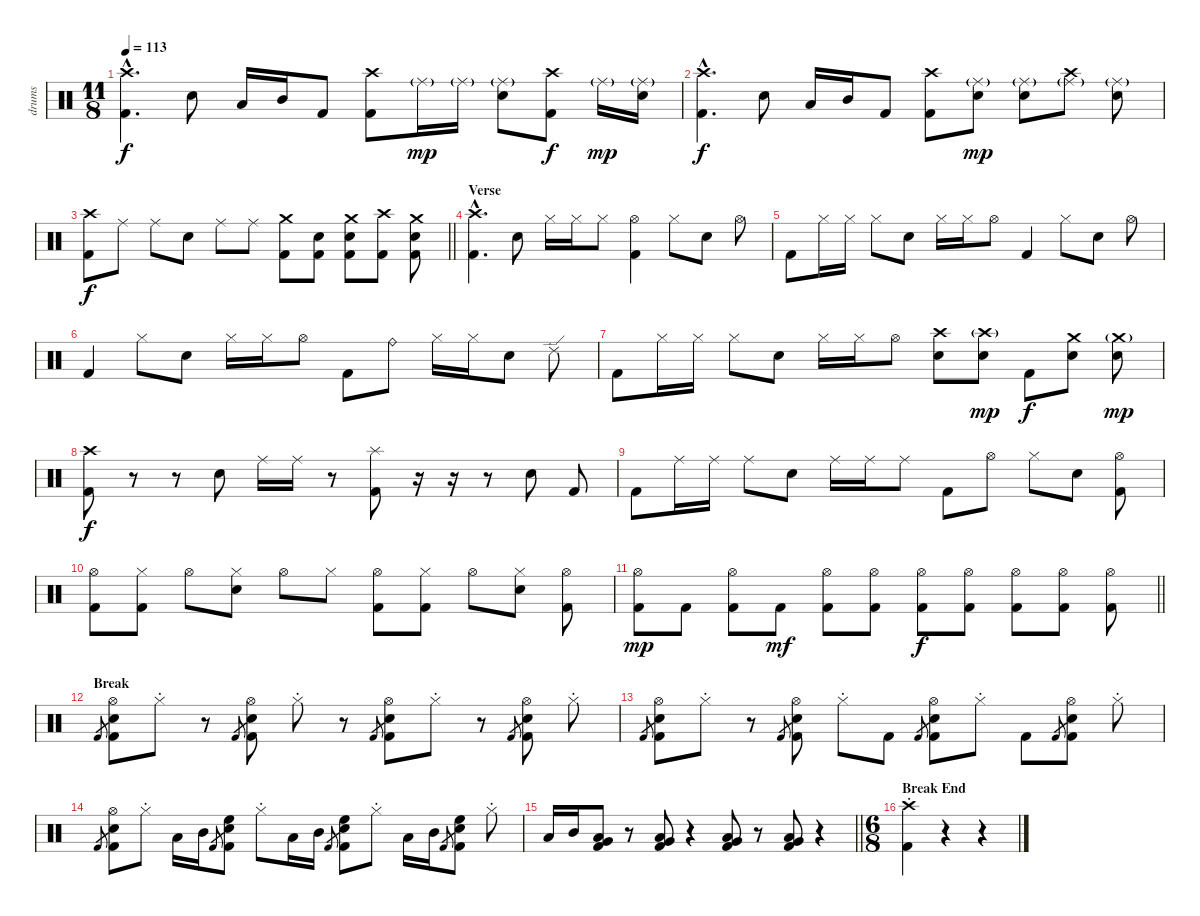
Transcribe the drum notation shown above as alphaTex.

\track ("drums" "drums") {instrument percussion}
\staff {score}
\articulation defaults
\ts (11 8)
\tempo 113
\clef neutral
\ks c
("Crash high (hit)"{hac} "Kick (hit) 2"{hac}).4{d dy f} "Electric Snare (hit)".8 "Low Tom (hit)".16 "Mid Tom (hit)".16 "Kick (hit) 2".8 ("Crash high (hit)" "Kick (hit) 2").8 "Ride (middle)"{g}.16{dy mp} "Ride (middle)"{g}.16 ("Ride (middle)"{g} "Electric Snare (hit)").8 ("Crash high (hit)" "Kick (hit) 2").8{dy f} "Ride (middle)"{g}.16{dy mp} ("Ride (middle)"{g} "Electric Snare (hit)").16 |
("Crash high (hit)"{hac} "Kick (hit) 2"{hac}).4{d dy f} "Electric Snare (hit)".8 "Low Tom (hit)".16 "Mid Tom (hit)".16 "Kick (hit) 2".8 ("Crash high (hit)" "Kick (hit) 2").8 ("Ride (middle)"{g} "Electric Snare (hit)").8{dy mp} ("Ride (middle)"{g} "Electric Snare (hit)").8 ("Crash high (hit)" "Ride (middle)"{g}).8 ("Ride (middle)"{g} "Electric Snare (hit)").8 |
\barLineRight lightlight
("Crash high (hit)" "Kick (hit) 2").8{dy f} "Ride (middle)".8 "Ride (middle)".8 "Electric Snare (hit)".8 "Ride (middle)".8 "Ride (middle)".8 ("Crash medium (hit)" "Kick (hit) 2").8 ("Kick (hit) 2" "Electric Snare (hit)").8 ("Crash medium (hit)" "Kick (hit) 2" "Electric Snare (hit)").8 ("Crash high (hit)" "Kick (hit) 2").8 ("Crash medium (hit)" "Kick (hit) 2" "Electric Snare (hit)").8 |
\section ("" "Verse")
("Crash high (hit)"{hac} "Kick (hit) 2"{hac}).4{d} "Electric Snare (hit)".8 "Hi-Hat (closed)".16 "Hi-Hat (closed)".16 "Hi-Hat (closed)".8 ("Kick (hit) 2" "Hi-Hat (open)").4 "Hi-Hat (closed)".8 "Electric Snare (hit)".8 "Hi-Hat (open)".8 |
"Kick (hit) 2".8 "Hi-Hat (closed)".16 "Hi-Hat (closed)".16 "Hi-Hat (closed)".8 "Electric Snare (hit)".8 "Hi-Hat (closed)".16 "Hi-Hat (closed)".16 "Hi-Hat (open)".8 "Kick (hit) 2".4 "Hi-Hat (closed)".8 "Electric Snare (hit)".8 "Hi-Hat (open)".8 |
"Kick (hit) 2".4 "Hi-Hat (closed)".8 "Electric Snare (hit)".8 "Hi-Hat (closed)".16 "Hi-Hat (closed)".16 "Hi-Hat (open)".8 "Kick (hit) 2".8 "Ride (bell)".8 "Hi-Hat (closed)".16 "Hi-Hat (closed)".16 "Electric Snare (hit)".8 "Ride (edge) 2".8 |
"Kick (hit) 2".8 "Hi-Hat (closed)".16 "Hi-Hat (closed)".16 "Hi-Hat (closed)".8 "Electric Snare (hit)".8 "Hi-Hat (closed)".16 "Hi-Hat (closed)".16 "Hi-Hat (open)".8 ("Crash high (hit)" "Electric Snare (hit)").8 ("Crash high (hit)"{g} "Electric Snare (hit)").8{dy mp} "Kick (hit) 2".8{dy f} ("Crash medium (hit)" "Electric Snare (hit)").8 ("Crash medium (hit)"{g} "Electric Snare (hit)").8{dy mp} |
("Crash high (hit)" "Kick (hit) 2").8{dy f} r.8 r.8 "Electric Snare (hit)".8 "Ride (middle)".16 "Ride (middle)".16 r.8 ("Splash (hit)" "Kick (hit) 2").8 r.16 r.16 r.8 "Electric Snare (hit)".8 "Kick (hit) 2".8 |
"Kick (hit) 2".8 "Ride (middle)".16 "Ride (middle)".16 "Ride (middle)".8 "Electric Snare (hit)".8 "Ride (middle)".16 "Ride (middle)".16 "Ride (middle)".8 "Kick (hit) 2".8 "Hi-Hat (open)".8 "Hi-Hat (closed)".8 "Electric Snare (hit)".8 ("Hi-Hat (open)" "Kick (hit) 2").8 |
("Hi-Hat (open)" "Kick (hit) 2").8 ("Hi-Hat (closed)" "Kick (hit) 2").8 "Hi-Hat (open)".8 ("Hi-Hat (closed)" "Electric Snare (hit)").8 "Hi-Hat (open)".8 "Hi-Hat (closed)".8 ("Hi-Hat (open)" "Kick (hit) 2").8 ("Hi-Hat (closed)" "Kick (hit) 2").8 "Hi-Hat (open)".8 ("Hi-Hat (closed)" "Electric Snare (hit)").8 ("Hi-Hat (open)" "Kick (hit) 2").8 |
\barLineRight lightlight
("Hi-Hat (open)" "Kick (hit) 2").8{dy mp} "Kick (hit) 2".8 ("Hi-Hat (open)" "Kick (hit) 2").8 "Kick (hit) 2".8{dy mf} ("Hi-Hat (open)" "Kick (hit) 2").8 ("Hi-Hat (open)" "Kick (hit) 2").8 ("Hi-Hat (open)" "Kick (hit) 2").8{dy f} ("Hi-Hat (open)" "Kick (hit) 2").8 ("Hi-Hat (open)" "Kick (hit) 2").8 ("Hi-Hat (open)" "Kick (hit) 2").8 ("Hi-Hat (open)" "Kick (hit) 2").8 |
\section ("" "Break")
"Kick (hit) 2"{h}.8{gr} ("Hi-Hat (open)" "Electric Snare (hit)" "Kick (hit) 2").8 "Hi-Hat (closed)"{st}.8 r.8 "Kick (hit) 2"{h}.8{gr} ("Hi-Hat (open)" "Electric Snare (hit)" "Kick (hit) 2").8 "Hi-Hat (closed)"{st}.8 r.8 "Kick (hit) 2"{h}.8{gr} ("Hi-Hat (open)" "Electric Snare (hit)" "Kick (hit) 2").8 "Hi-Hat (closed)"{st}.8 r.8 "Kick (hit) 2"{h}.8{gr} ("Hi-Hat (open)" "Electric Snare (hit)" "Kick (hit) 2").8 "Hi-Hat (closed)"{st}.8 |
"Kick (hit) 2"{h}.8{gr} ("Hi-Hat (open)" "Electric Snare (hit)" "Kick (hit) 2").8 "Hi-Hat (closed)"{st}.8 r.8 "Kick (hit) 2"{h}.8{gr} ("Hi-Hat (open)" "Electric Snare (hit)" "Kick (hit) 2").8 "Hi-Hat (closed)"{st}.8 "Kick (hit) 2".8 "Kick (hit) 2"{h}.8{gr} ("Hi-Hat (open)" "Electric Snare (hit)" "Kick (hit) 2").8 "Hi-Hat (closed)"{st}.8 "Kick (hit) 2".8 "Kick (hit) 2"{h}.8{gr} ("Hi-Hat (open)" "Electric Snare (hit)" "Kick (hit) 2").8 "Hi-Hat (closed)"{st}.8 |
"Kick (hit) 2"{h}.8{gr} ("Hi-Hat (open)" "Electric Snare (hit)" "Kick (hit) 2").8 "Hi-Hat (closed)"{st}.8 "Low Tom (hit)".16 "Mid Tom (hit)".16 "Kick (hit) 2"{h}.8{gr} ("Electric Snare (hit)" "Kick (hit) 2" "High Floor Tom (hit)").8 "Hi-Hat (closed)"{st}.8 "Low Tom (hit)".16 "Mid Tom (hit)".16 "Kick (hit) 2"{h}.8{gr} ("Electric Snare (hit)" "Kick (hit) 2" "High Floor Tom (hit)").8 "Hi-Hat (closed)"{st}.8 "Low Tom (hit)".16 "Mid Tom (hit)".16 "Kick (hit) 2"{h}.8{gr} ("Electric Snare (hit)" "Kick (hit) 2" "High Floor Tom (hit)").8 "Hi-Hat (closed)"{st}.8 |
\barLineRight lightlight "Low Tom (hit)".16 "Mid Tom (hit)".16
("Very Low Tom (hit)" "Low Floor Tom (hit)" "Kick (hit) 2").8 r.8 ("Very Low Tom (hit)" "Low Floor Tom (hit)" "Kick (hit) 2").8 r.4 ("Very Low Tom (hit)" "Low Floor Tom (hit)" "Kick (hit) 2").8 r.8 ("Very Low Tom (hit)" "Low Floor Tom (hit)" "Kick (hit) 2").8 r.4 |
\ts (6 8)
\section ("" "Break End")
("Kick (hit) 2" "Crash high (hit)"{st}).4 r.4 r.4
